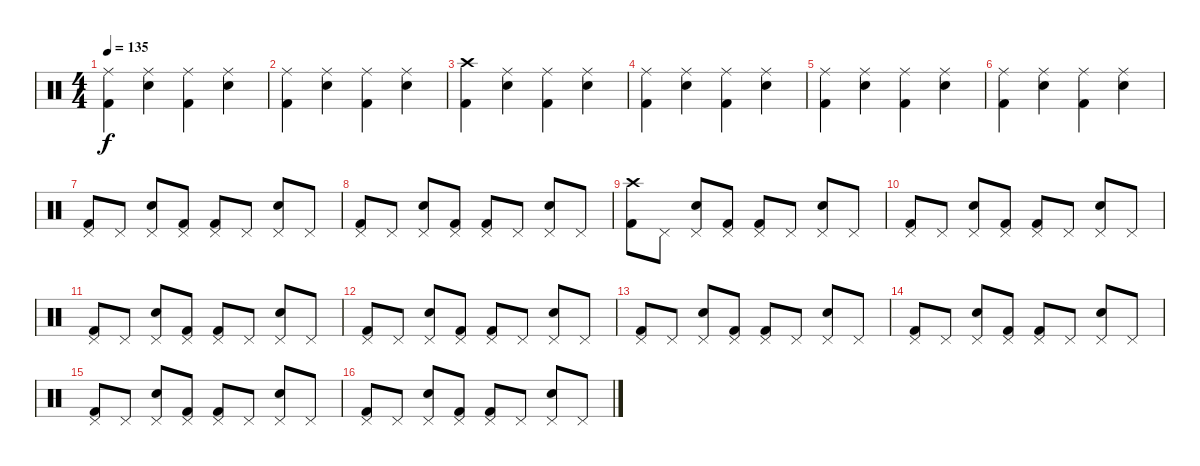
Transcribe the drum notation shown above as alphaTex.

\track "" {instrument percussion}
\staff {score}
\articulation defaults
\ts (4 4)
\tempo 135
\clef neutral
\ks c
("Ride (middle)" "Kick (hit) 2").4{dy f} ("Ride (middle)" "Snare (hit) 2").4 ("Ride (middle)" "Kick (hit) 2").4 ("Ride (middle)" "Snare (hit) 2").4 |
("Ride (middle)" "Kick (hit) 2").4 ("Ride (middle)" "Snare (hit) 2").4 ("Ride (middle)" "Kick (hit) 2").4 ("Ride (middle)" "Snare (hit) 2").4 |
("Crash high (hit)" "Kick (hit) 2").4 ("Ride (middle)" "Snare (hit) 2").4 ("Ride (middle)" "Kick (hit) 2").4 ("Ride (middle)" "Snare (hit) 2").4 |
("Ride (middle)" "Kick (hit) 2").4 ("Ride (middle)" "Snare (hit) 2").4 ("Ride (middle)" "Kick (hit) 2").4 ("Ride (middle)" "Snare (hit) 2").4 |
("Ride (middle)" "Kick (hit) 2").4 ("Ride (middle)" "Snare (hit) 2").4 ("Ride (middle)" "Kick (hit) 2").4 ("Ride (middle)" "Snare (hit) 2").4 |
("Ride (middle)" "Kick (hit) 2").4 ("Ride (middle)" "Snare (hit) 2").4 ("Ride (middle)" "Kick (hit) 2").4 ("Ride (middle)" "Snare (hit) 2").4 |
("Pedal Hi-Hat (hit)" "Kick (hit) 2").8 "Pedal Hi-Hat (hit)".8 ("Pedal Hi-Hat (hit)" "Snare (hit) 2").8 ("Pedal Hi-Hat (hit)" "Kick (hit) 2").8 ("Pedal Hi-Hat (hit)" "Kick (hit) 2").8 "Pedal Hi-Hat (hit)".8 ("Pedal Hi-Hat (hit)" "Snare (hit) 2").8 "Pedal Hi-Hat (hit)".8 |
("Pedal Hi-Hat (hit)" "Kick (hit) 2").8 "Pedal Hi-Hat (hit)".8 ("Pedal Hi-Hat (hit)" "Snare (hit) 2").8 ("Pedal Hi-Hat (hit)" "Kick (hit) 2").8 ("Pedal Hi-Hat (hit)" "Kick (hit) 2").8 "Pedal Hi-Hat (hit)".8 ("Pedal Hi-Hat (hit)" "Snare (hit) 2").8 "Pedal Hi-Hat (hit)".8 |
("Crash high (hit)" "Kick (hit) 2").8 "Pedal Hi-Hat (hit)".8 ("Pedal Hi-Hat (hit)" "Snare (hit) 2").8 ("Pedal Hi-Hat (hit)" "Kick (hit) 2").8 ("Pedal Hi-Hat (hit)" "Kick (hit) 2").8 "Pedal Hi-Hat (hit)".8 ("Pedal Hi-Hat (hit)" "Snare (hit) 2").8 "Pedal Hi-Hat (hit)".8 |
("Pedal Hi-Hat (hit)" "Kick (hit) 2").8 "Pedal Hi-Hat (hit)".8 ("Pedal Hi-Hat (hit)" "Snare (hit) 2").8 ("Pedal Hi-Hat (hit)" "Kick (hit) 2").8 ("Pedal Hi-Hat (hit)" "Kick (hit) 2").8 "Pedal Hi-Hat (hit)".8 ("Pedal Hi-Hat (hit)" "Snare (hit) 2").8 "Pedal Hi-Hat (hit)".8 |
("Pedal Hi-Hat (hit)" "Kick (hit) 2").8 "Pedal Hi-Hat (hit)".8 ("Pedal Hi-Hat (hit)" "Snare (hit) 2").8 ("Pedal Hi-Hat (hit)" "Kick (hit) 2").8 ("Pedal Hi-Hat (hit)" "Kick (hit) 2").8 "Pedal Hi-Hat (hit)".8 ("Pedal Hi-Hat (hit)" "Snare (hit) 2").8 "Pedal Hi-Hat (hit)".8 |
("Pedal Hi-Hat (hit)" "Kick (hit) 2").8 "Pedal Hi-Hat (hit)".8 ("Pedal Hi-Hat (hit)" "Snare (hit) 2").8 ("Pedal Hi-Hat (hit)" "Kick (hit) 2").8 ("Pedal Hi-Hat (hit)" "Kick (hit) 2").8 "Pedal Hi-Hat (hit)".8 ("Pedal Hi-Hat (hit)" "Snare (hit) 2").8 "Pedal Hi-Hat (hit)".8 |
("Pedal Hi-Hat (hit)" "Kick (hit) 2").8 "Pedal Hi-Hat (hit)".8 ("Pedal Hi-Hat (hit)" "Snare (hit) 2").8 ("Pedal Hi-Hat (hit)" "Kick (hit) 2").8 ("Pedal Hi-Hat (hit)" "Kick (hit) 2").8 "Pedal Hi-Hat (hit)".8 ("Pedal Hi-Hat (hit)" "Snare (hit) 2").8 "Pedal Hi-Hat (hit)".8 |
("Pedal Hi-Hat (hit)" "Kick (hit) 2").8 "Pedal Hi-Hat (hit)".8 ("Pedal Hi-Hat (hit)" "Snare (hit) 2").8 ("Pedal Hi-Hat (hit)" "Kick (hit) 2").8 ("Pedal Hi-Hat (hit)" "Kick (hit) 2").8 "Pedal Hi-Hat (hit)".8 ("Pedal Hi-Hat (hit)" "Snare (hit) 2").8 "Pedal Hi-Hat (hit)".8 |
("Pedal Hi-Hat (hit)" "Kick (hit) 2").8 "Pedal Hi-Hat (hit)".8 ("Pedal Hi-Hat (hit)" "Snare (hit) 2").8 ("Pedal Hi-Hat (hit)" "Kick (hit) 2").8 ("Pedal Hi-Hat (hit)" "Kick (hit) 2").8 "Pedal Hi-Hat (hit)".8 ("Pedal Hi-Hat (hit)" "Snare (hit) 2").8 "Pedal Hi-Hat (hit)".8 |
("Pedal Hi-Hat (hit)" "Kick (hit) 2").8 "Pedal Hi-Hat (hit)".8 ("Pedal Hi-Hat (hit)" "Snare (hit) 2").8 ("Pedal Hi-Hat (hit)" "Kick (hit) 2").8 ("Pedal Hi-Hat (hit)" "Kick (hit) 2").8 "Pedal Hi-Hat (hit)".8 ("Pedal Hi-Hat (hit)" "Snare (hit) 2").8 "Pedal Hi-Hat (hit)".8
